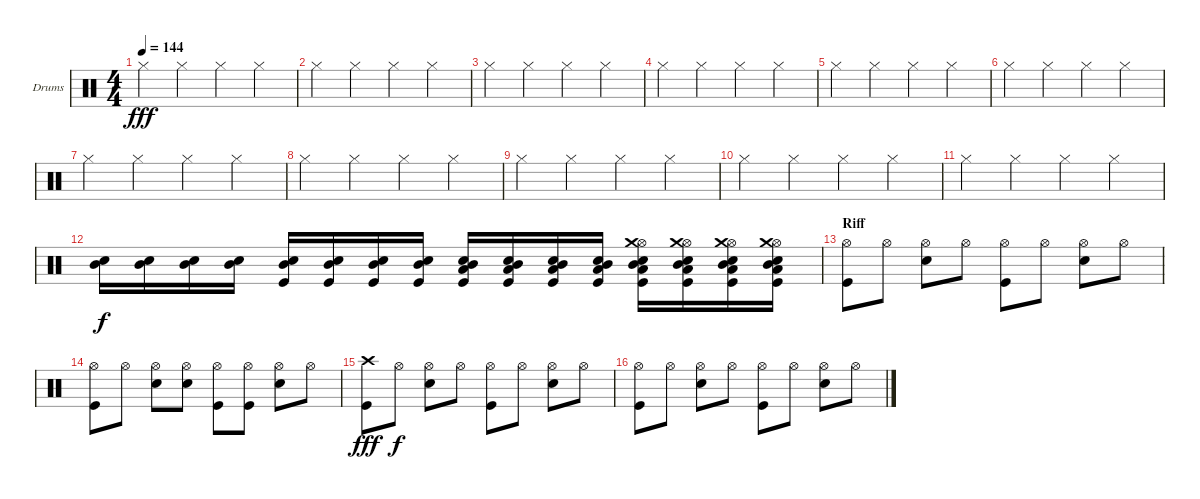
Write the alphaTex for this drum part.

\bracketExtendMode groupsimilarinstruments
\firstSystemTrackNameOrientation horizontal
\otherSystemsTrackNameOrientation horizontal
\track ("Drums" "Drums") {instrument percussion}
\staff {score}
\articulation defaults
\ts (4 4)
\tempo 144
\clef neutral
\ks c "Hi-Hat (closed)".4{dy fff} "Hi-Hat (closed)".4 "Hi-Hat (closed)".4 "Hi-Hat (closed)".4
|
"Hi-Hat (closed)".4 "Hi-Hat (closed)".4 "Hi-Hat (closed)".4 "Hi-Hat (closed)".4 |
"Hi-Hat (closed)".4 "Hi-Hat (closed)".4 "Hi-Hat (closed)".4 "Hi-Hat (closed)".4 |
"Hi-Hat (closed)".4 "Hi-Hat (closed)".4 "Hi-Hat (closed)".4 "Hi-Hat (closed)".4 |
"Hi-Hat (closed)".4 "Hi-Hat (closed)".4 "Hi-Hat (closed)".4 "Hi-Hat (closed)".4 |
"Hi-Hat (closed)".4 "Hi-Hat (closed)".4 "Hi-Hat (closed)".4 "Hi-Hat (closed)".4 |
"Hi-Hat (closed)".4 "Hi-Hat (closed)".4 "Hi-Hat (closed)".4 "Hi-Hat (closed)".4 |
"Hi-Hat (closed)".4 "Hi-Hat (closed)".4 "Hi-Hat (closed)".4 "Hi-Hat (closed)".4 |
"Hi-Hat (closed)".4 "Hi-Hat (closed)".4 "Hi-Hat (closed)".4 "Hi-Hat (closed)".4 |
"Hi-Hat (closed)".4 "Hi-Hat (closed)".4 "Hi-Hat (closed)".4 "Hi-Hat (closed)".4 |
"Hi-Hat (closed)".4 "Hi-Hat (closed)".4 "Hi-Hat (closed)".4 "Hi-Hat (closed)".4 |
("Mid Tom (hit)" "Snare (hit) 2").16{dy f} ("Mid Tom (hit)" "Snare (hit) 2").16 ("Mid Tom (hit)" "Snare (hit) 2").16 ("Mid Tom (hit)" "Snare (hit) 2").16 ("Mid Tom (hit)" "Snare (hit) 2" "Kick (hit)").16 ("Mid Tom (hit)" "Snare (hit) 2" "Kick (hit)").16 ("Mid Tom (hit)" "Snare (hit) 2" "Kick (hit)").16 ("Mid Tom (hit)" "Snare (hit) 2" "Kick (hit)").16 ("Mid Tom (hit)" "Snare (hit) 2" "Kick (hit)" "Low Tom (hit)").16 ("Mid Tom (hit)" "Snare (hit) 2" "Kick (hit)" "Low Tom (hit)").16 ("Mid Tom (hit)" "Snare (hit) 2" "Kick (hit)" "Low Tom (hit)").16 ("Mid Tom (hit)" "Snare (hit) 2" "Kick (hit)" "Low Tom (hit)").16 ("Mid Tom (hit)" "Snare (hit) 2" "Kick (hit)" "Low Tom (hit)" "Hi-Hat (open)" "Crash medium (hit)").16 ("Mid Tom (hit)" "Snare (hit) 2" "Kick (hit)" "Low Tom (hit)" "Hi-Hat (open)" "Crash medium (hit)").16 ("Mid Tom (hit)" "Snare (hit) 2" "Kick (hit)" "Low Tom (hit)" "Hi-Hat (open)" "Crash medium (hit)").16 ("Mid Tom (hit)" "Snare (hit) 2" "Kick (hit)" "Low Tom (hit)" "Hi-Hat (open)" "Crash medium (hit)").16 |
\section ("" "Riff")
("Hi-Hat (open)" "Kick (hit)").8 "Hi-Hat (open)".8 ("Hi-Hat (open)" "Snare (hit) 2").8 "Hi-Hat (open)".8 ("Hi-Hat (open)" "Kick (hit)").8 "Hi-Hat (open)".8 ("Hi-Hat (open)" "Snare (hit) 2").8 "Hi-Hat (open)".8 |
("Hi-Hat (open)" "Kick (hit)").8 "Hi-Hat (open)".8 ("Hi-Hat (open)" "Snare (hit) 2").8 ("Hi-Hat (open)" "Snare (hit) 2").8 ("Hi-Hat (open)" "Kick (hit)").8 ("Hi-Hat (open)" "Kick (hit)").8 ("Hi-Hat (open)" "Snare (hit) 2").8 "Hi-Hat (open)".8 |
("Crash high (hit)" "Kick (hit)").8{dy fff} "Hi-Hat (open)".8{dy f} ("Hi-Hat (open)" "Snare (hit) 2").8 "Hi-Hat (open)".8 ("Hi-Hat (open)" "Kick (hit)").8 "Hi-Hat (open)".8 ("Hi-Hat (open)" "Snare (hit) 2").8 "Hi-Hat (open)".8 |
("Hi-Hat (open)" "Kick (hit)").8 "Hi-Hat (open)".8 ("Hi-Hat (open)" "Snare (hit) 2").8 "Hi-Hat (open)".8 ("Hi-Hat (open)" "Kick (hit)").8 "Hi-Hat (open)".8 ("Hi-Hat (open)" "Snare (hit) 2").8 "Hi-Hat (open)".8
